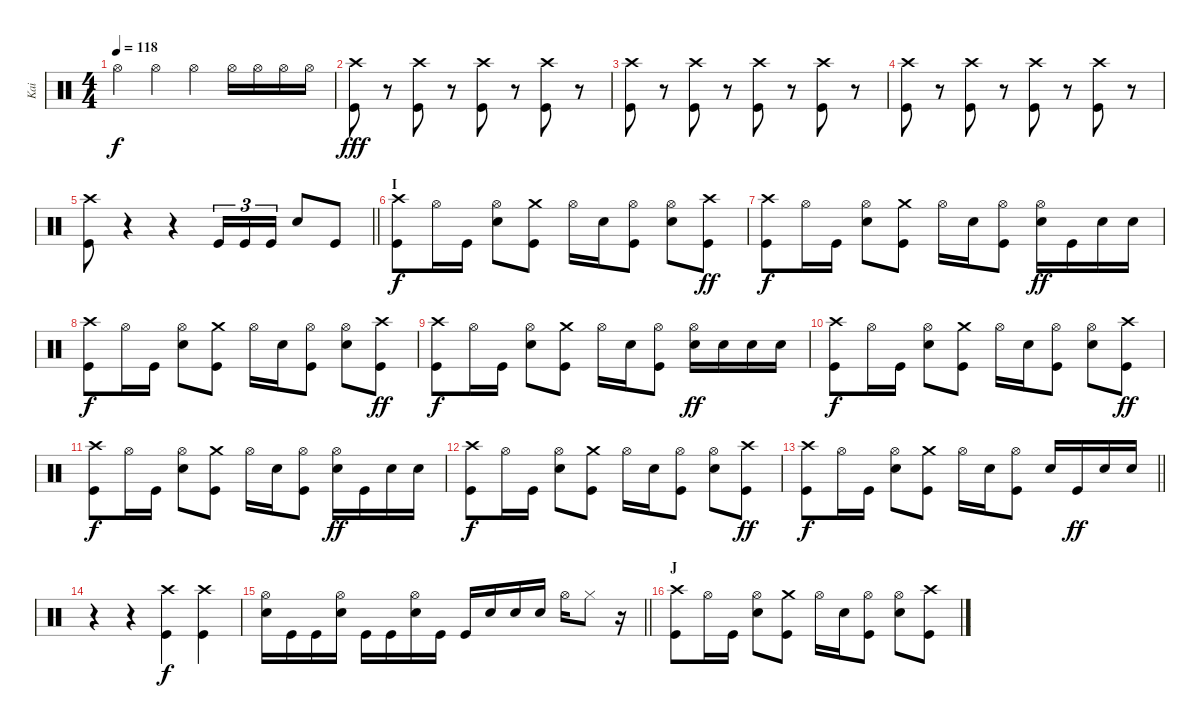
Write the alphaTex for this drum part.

\track ("Kai" "Kai") {instrument percussion}
\staff {score}
\articulation defaults
\ts (4 4)
\tempo 118
\clef neutral
\ks c "Hi-Hat (open)"{t}.4{dy f} "Hi-Hat (open)".4 "Hi-Hat (open)".4 "Hi-Hat (open)".16 "Hi-Hat (open)".16 "Hi-Hat (open)".16 "Hi-Hat (open)".16
|
("Crash high (hit)" "Kick (hit)").8{dy fff} r.8 ("Crash high (hit)" "Kick (hit)").8 r.8 ("Kick (hit)" "Crash high (hit)").8 r.8 ("Crash high (hit)" "Kick (hit)").8 r.8 |
("Crash high (hit)" "Kick (hit)").8 r.8 ("Crash high (hit)" "Kick (hit)").8 r.8 ("Kick (hit)" "Crash high (hit)").8 r.8 ("Crash high (hit)" "Kick (hit)").8 r.8 |
("Crash high (hit)" "Kick (hit)").8 r.8 ("Crash high (hit)" "Kick (hit)").8 r.8 ("Kick (hit)" "Crash high (hit)").8 r.8 ("Crash high (hit)" "Kick (hit)").8 r.8 |
\barLineRight lightlight
("Crash high (hit)" "Kick (hit)").8 r.4 r.4 "Kick (hit)".16{tu (3 2)} "Kick (hit)".16{tu (3 2)} "Kick (hit)".16{tu (3 2)} "Snare (hit) 2".8 "Kick (hit)".8 |
\section ("" "I")
("Kick (hit)" "Crash high (hit)").8{dy f} "Hi-Hat (open)".16 "Kick (hit)".16 ("Hi-Hat (open)" "Snare (hit) 2").8 ("Crash medium (hit)" "Kick (hit)").8 "Hi-Hat (open)".16 "Snare (hit) 2".16 ("Kick (hit)" "Hi-Hat (open)").8 ("Hi-Hat (open)" "Snare (hit) 2").8 ("Kick (hit)" "Crash high (hit)").8{dy ff} |
("Kick (hit)" "Crash high (hit)").8{dy f} "Hi-Hat (open)".16 "Kick (hit)".16 ("Hi-Hat (open)" "Snare (hit) 2").8 ("Crash medium (hit)" "Kick (hit)").8 "Hi-Hat (open)".16 "Snare (hit) 2".16 ("Kick (hit)" "Hi-Hat (open)").8 ("Hi-Hat (open)" "Snare (hit) 2").16{dy ff} "Kick (hit)".16 "Snare (hit) 2".16 "Snare (hit) 2".16 |
("Kick (hit)" "Crash high (hit)").8{dy f} "Hi-Hat (open)".16 "Kick (hit)".16 ("Hi-Hat (open)" "Snare (hit) 2").8 ("Crash medium (hit)" "Kick (hit)").8 "Hi-Hat (open)".16 "Snare (hit) 2".16 ("Kick (hit)" "Hi-Hat (open)").8 ("Hi-Hat (open)" "Snare (hit) 2").8 ("Kick (hit)" "Crash high (hit)").8{dy ff} |
("Kick (hit)" "Crash high (hit)").8{dy f} "Hi-Hat (open)".16 "Kick (hit)".16 ("Hi-Hat (open)" "Snare (hit) 2").8 ("Crash medium (hit)" "Kick (hit)").8 "Hi-Hat (open)".16 "Snare (hit) 2".16 ("Kick (hit)" "Hi-Hat (open)").8 ("Hi-Hat (open)" "Snare (hit) 2").16{dy ff} "Snare (hit) 2".16 "Snare (hit) 2".16 "Snare (hit) 2".16 |
("Kick (hit)" "Crash high (hit)").8{dy f} "Hi-Hat (open)".16 "Kick (hit)".16 ("Hi-Hat (open)" "Snare (hit) 2").8 ("Crash medium (hit)" "Kick (hit)").8 "Hi-Hat (open)".16 "Snare (hit) 2".16 ("Kick (hit)" "Hi-Hat (open)").8 ("Hi-Hat (open)" "Snare (hit) 2").8 ("Kick (hit)" "Crash high (hit)").8{dy ff} |
("Kick (hit)" "Crash high (hit)").8{dy f} "Hi-Hat (open)".16 "Kick (hit)".16 ("Hi-Hat (open)" "Snare (hit) 2").8 ("Crash medium (hit)" "Kick (hit)").8 "Hi-Hat (open)".16 "Snare (hit) 2".16 ("Kick (hit)" "Hi-Hat (open)").8 ("Hi-Hat (open)" "Snare (hit) 2").16{dy ff} "Kick (hit)".16 "Snare (hit) 2".16 "Snare (hit) 2".16 |
("Kick (hit)" "Crash high (hit)").8{dy f} "Hi-Hat (open)".16 "Kick (hit)".16 ("Hi-Hat (open)" "Snare (hit) 2").8 ("Crash medium (hit)" "Kick (hit)").8 "Hi-Hat (open)".16 "Snare (hit) 2".16 ("Kick (hit)" "Hi-Hat (open)").8 ("Hi-Hat (open)" "Snare (hit) 2").8 ("Kick (hit)" "Crash high (hit)").8{dy ff} |
\barLineRight lightlight
("Kick (hit)" "Crash high (hit)").8{dy f} "Hi-Hat (open)".16 "Kick (hit)".16 ("Hi-Hat (open)" "Snare (hit) 2").8 ("Crash medium (hit)" "Kick (hit)").8 "Hi-Hat (open)".16 "Snare (hit) 2".16 ("Kick (hit)" "Hi-Hat (open)").8 "Snare (hit) 2".16 "Kick (hit)".16{dy ff} "Snare (hit) 2".16 "Snare (hit) 2".16 |
r.4 r.4 ("Kick (hit)" "Crash high (hit)").4{dy f} ("Kick (hit)" "Crash high (hit)").4 |
\barLineRight lightlight
("Hi-Hat (open)" "Snare (hit) 2").16 "Kick (hit)".16 "Kick (hit)".16 ("Snare (hit) 2" "Hi-Hat (open)").16 "Kick (hit)".16 "Kick (hit)".16 ("Snare (hit) 2" "Hi-Hat (open)").16 "Kick (hit)".16 "Kick (hit)".16 "Snare (hit) 2".16 "Snare (hit) 2".16 "Snare (hit) 2".16 "Hi-Hat (open)".16 "Hi-Hat (closed)".8 r.16 |
\section ("" "J")
("Kick (hit)" "Crash high (hit)").8 "Hi-Hat (open)".16 "Kick (hit)".16 ("Hi-Hat (open)" "Snare (hit) 2").8 ("Crash medium (hit)" "Kick (hit)").8 "Hi-Hat (open)".16 "Snare (hit) 2".16 ("Kick (hit)" "Hi-Hat (open)").8 ("Hi-Hat (open)" "Snare (hit) 2").8 ("Kick (hit)" "Crash high (hit)").8
